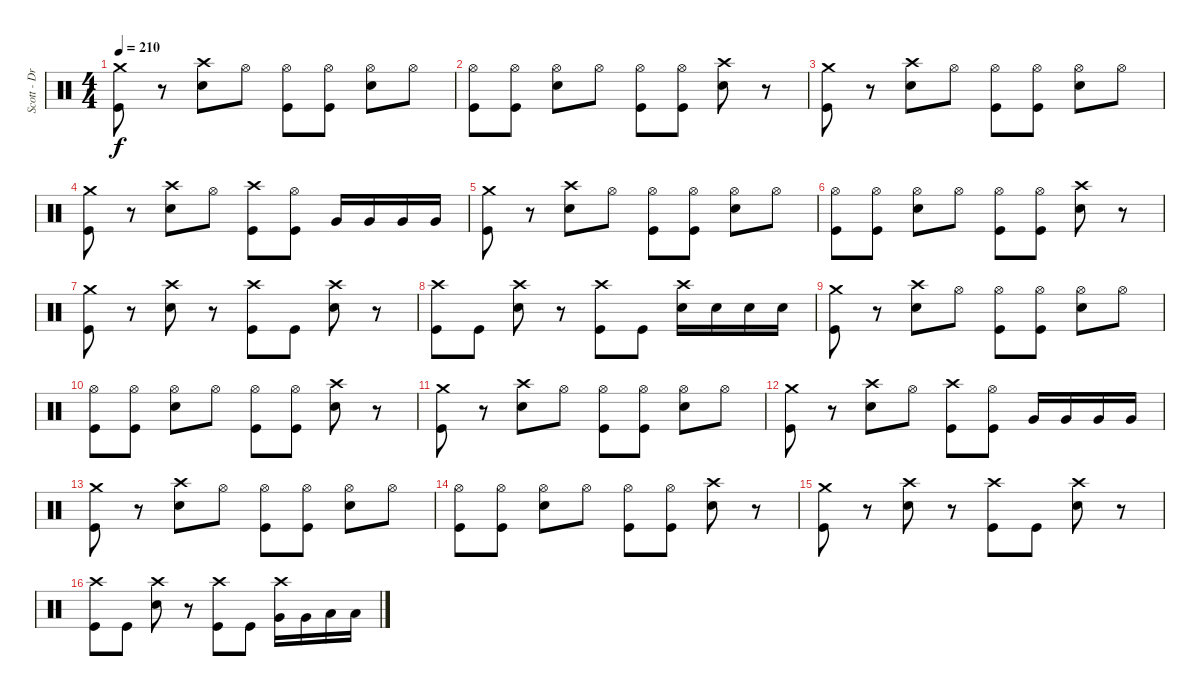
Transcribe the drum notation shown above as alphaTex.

\track ("Scott - Drums" "Scott - Dr") {instrument percussion}
\staff {score}
\articulation defaults
\ts (4 4)
\tempo 210
\clef neutral
\ks c
("Crash medium (hit)" "Kick (hit)").8{dy f} r.8 ("Crash high (hit)" "Electric Snare (hit)").8 "Hi-Hat (open)".8 ("Hi-Hat (open)" "Kick (hit)").8 ("Hi-Hat (open)" "Kick (hit)").8 ("Hi-Hat (open)" "Electric Snare (hit)").8 "Hi-Hat (open)".8 |
("Hi-Hat (open)" "Kick (hit)").8 ("Hi-Hat (open)" "Kick (hit)").8 ("Hi-Hat (open)" "Electric Snare (hit)").8 "Hi-Hat (open)".8 ("Hi-Hat (open)" "Kick (hit)").8 ("Hi-Hat (open)" "Kick (hit)").8 ("Crash high (hit)" "Electric Snare (hit)").8 r.8 |
("Crash medium (hit)" "Kick (hit)").8 r.8 ("Crash high (hit)" "Electric Snare (hit)").8 "Hi-Hat (open)".8 ("Hi-Hat (open)" "Kick (hit)").8 ("Hi-Hat (open)" "Kick (hit)").8 ("Hi-Hat (open)" "Electric Snare (hit)").8 "Hi-Hat (open)".8 |
("Crash medium (hit)" "Kick (hit)").8 r.8 ("Crash high (hit)" "Electric Snare (hit)").8 "Hi-Hat (open)".8 ("Crash high (hit)" "Kick (hit)").8 ("Hi-Hat (open)" "Kick (hit)").8 "Very Low Tom (hit)".16 "Very Low Tom (hit)".16 "Very Low Tom (hit)".16 "Very Low Tom (hit)".16 |
("Crash medium (hit)" "Kick (hit)").8 r.8 ("Crash high (hit)" "Electric Snare (hit)").8 "Hi-Hat (open)".8 ("Hi-Hat (open)" "Kick (hit)").8 ("Hi-Hat (open)" "Kick (hit)").8 ("Hi-Hat (open)" "Electric Snare (hit)").8 "Hi-Hat (open)".8 |
("Hi-Hat (open)" "Kick (hit)").8 ("Hi-Hat (open)" "Kick (hit)").8 ("Hi-Hat (open)" "Electric Snare (hit)").8 "Hi-Hat (open)".8 ("Hi-Hat (open)" "Kick (hit)").8 ("Hi-Hat (open)" "Kick (hit)").8 ("Crash high (hit)" "Electric Snare (hit)").8 r.8 |
("Crash medium (hit)" "Kick (hit)").8 r.8 ("Crash high (hit)" "Electric Snare (hit)").8 r.8 ("Crash high (hit)" "Kick (hit)").8 "Kick (hit)".8 ("Crash high (hit)" "Electric Snare (hit)").8 r.8 |
("Crash high (hit)" "Kick (hit)").8 "Kick (hit)".8 ("Crash high (hit)" "Electric Snare (hit)").8 r.8 ("Crash high (hit)" "Kick (hit)").8 "Kick (hit)".8 ("Crash high (hit)" "Electric Snare (hit)").16 "Electric Snare (hit)".16 "Electric Snare (hit)".16 "Electric Snare (hit)".16 |
("Crash medium (hit)" "Kick (hit)").8 r.8 ("Crash high (hit)" "Electric Snare (hit)").8 "Hi-Hat (open)".8 ("Hi-Hat (open)" "Kick (hit)").8 ("Hi-Hat (open)" "Kick (hit)").8 ("Hi-Hat (open)" "Electric Snare (hit)").8 "Hi-Hat (open)".8 |
("Hi-Hat (open)" "Kick (hit)").8 ("Hi-Hat (open)" "Kick (hit)").8 ("Hi-Hat (open)" "Electric Snare (hit)").8 "Hi-Hat (open)".8 ("Hi-Hat (open)" "Kick (hit)").8 ("Hi-Hat (open)" "Kick (hit)").8 ("Crash high (hit)" "Electric Snare (hit)").8 r.8 |
("Crash medium (hit)" "Kick (hit)").8 r.8 ("Crash high (hit)" "Electric Snare (hit)").8 "Hi-Hat (open)".8 ("Hi-Hat (open)" "Kick (hit)").8 ("Hi-Hat (open)" "Kick (hit)").8 ("Hi-Hat (open)" "Electric Snare (hit)").8 "Hi-Hat (open)".8 |
("Crash medium (hit)" "Kick (hit)").8 r.8 ("Crash high (hit)" "Electric Snare (hit)").8 "Hi-Hat (open)".8 ("Crash high (hit)" "Kick (hit)").8 ("Hi-Hat (open)" "Kick (hit)").8 "Very Low Tom (hit)".16 "Very Low Tom (hit)".16 "Very Low Tom (hit)".16 "Very Low Tom (hit)".16 |
("Crash medium (hit)" "Kick (hit)").8 r.8 ("Crash high (hit)" "Electric Snare (hit)").8 "Hi-Hat (open)".8 ("Hi-Hat (open)" "Kick (hit)").8 ("Hi-Hat (open)" "Kick (hit)").8 ("Hi-Hat (open)" "Electric Snare (hit)").8 "Hi-Hat (open)".8 |
("Hi-Hat (open)" "Kick (hit)").8 ("Hi-Hat (open)" "Kick (hit)").8 ("Hi-Hat (open)" "Electric Snare (hit)").8 "Hi-Hat (open)".8 ("Hi-Hat (open)" "Kick (hit)").8 ("Hi-Hat (open)" "Kick (hit)").8 ("Crash high (hit)" "Electric Snare (hit)").8 r.8 |
("Crash medium (hit)" "Kick (hit)").8 r.8 ("Crash high (hit)" "Electric Snare (hit)").8 r.8 ("Crash high (hit)" "Kick (hit)").8 "Kick (hit)".8 ("Crash high (hit)" "Electric Snare (hit)").8 r.8 |
("Crash high (hit)" "Kick (hit)").8 "Kick (hit)".8 ("Crash high (hit)" "Electric Snare (hit)").8 r.8 ("Crash high (hit)" "Kick (hit)").8 "Kick (hit)".8 ("Crash high (hit)" "Very Low Tom (hit)").16 "Very Low Tom (hit)".16 "Low Floor Tom (hit)".16 "Low Floor Tom (hit)".16
